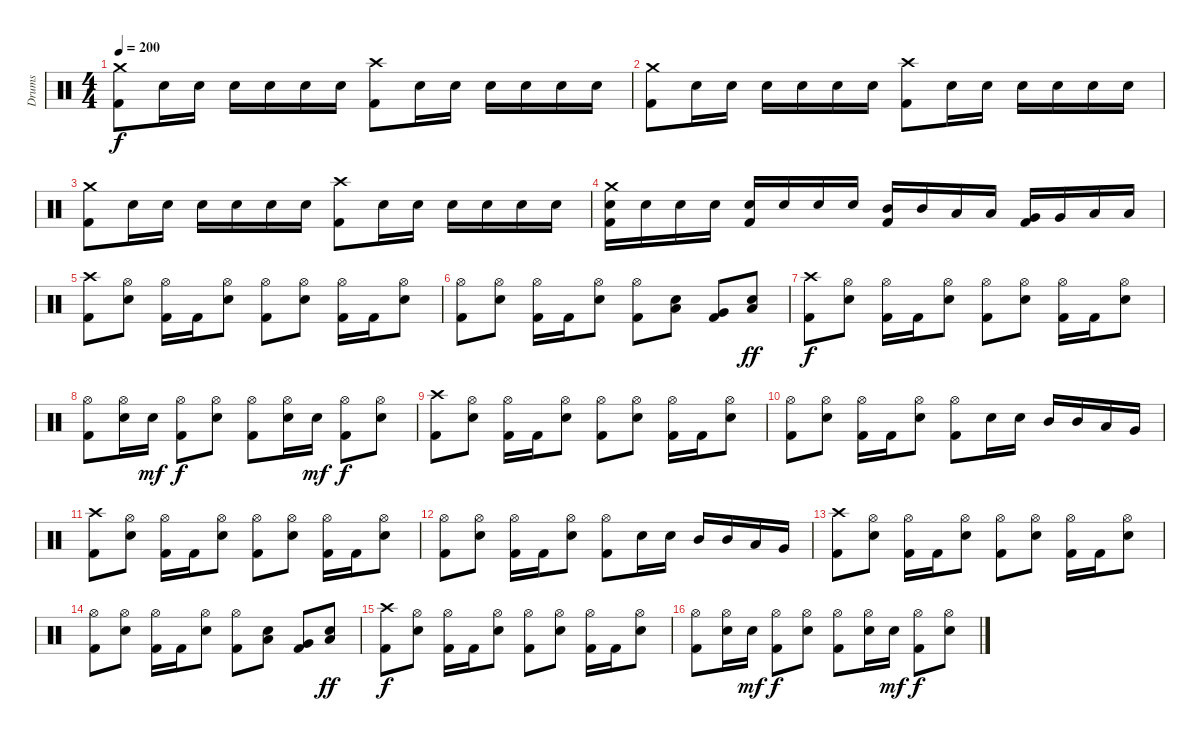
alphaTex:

\track ("Drums" "Drums") {instrument percussion}
\staff {score}
\articulation defaults
\ts (4 4)
\tempo 200
\clef neutral
\ks c
("Crash medium (hit)" "Kick (hit) 2").8{dy f} "Electric Snare (hit)".16 "Electric Snare (hit)".16 "Electric Snare (hit)".16 "Electric Snare (hit)".16 "Electric Snare (hit)".16 "Electric Snare (hit)".16 ("Crash high (hit)" "Kick (hit) 2").8 "Electric Snare (hit)".16 "Electric Snare (hit)".16 "Electric Snare (hit)".16 "Electric Snare (hit)".16 "Electric Snare (hit)".16 "Electric Snare (hit)".16 |
("Crash medium (hit)" "Kick (hit) 2").8 "Electric Snare (hit)".16 "Electric Snare (hit)".16 "Electric Snare (hit)".16 "Electric Snare (hit)".16 "Electric Snare (hit)".16 "Electric Snare (hit)".16 ("Crash high (hit)" "Kick (hit) 2").8 "Electric Snare (hit)".16 "Electric Snare (hit)".16 "Electric Snare (hit)".16 "Electric Snare (hit)".16 "Electric Snare (hit)".16 "Electric Snare (hit)".16 |
("Crash medium (hit)" "Kick (hit) 2").8 "Electric Snare (hit)".16 "Electric Snare (hit)".16 "Electric Snare (hit)".16 "Electric Snare (hit)".16 "Electric Snare (hit)".16 "Electric Snare (hit)".16 ("Crash high (hit)" "Kick (hit) 2").8 "Electric Snare (hit)".16 "Electric Snare (hit)".16 "Electric Snare (hit)".16 "Electric Snare (hit)".16 "Electric Snare (hit)".16 "Electric Snare (hit)".16 |
("Crash medium (hit)" "Electric Snare (hit)" "Kick (hit) 2").16 "Electric Snare (hit)".16 "Electric Snare (hit)".16 "Electric Snare (hit)".16 ("Electric Snare (hit)" "Kick (hit) 2").16 "Electric Snare (hit)".16 "Electric Snare (hit)".16 "Electric Snare (hit)".16 ("Mid Tom (hit)" "Kick (hit) 2").16 "Mid Tom (hit)".16 "Low Tom (hit)".16 "Low Tom (hit)".16 ("Very Low Tom (hit)" "Kick (hit) 2").16 "Very Low Tom (hit)".16 "Low Floor Tom (hit)".16 "Low Floor Tom (hit)".16 |
("Crash high (hit)" "Kick (hit) 2").8 ("Hi-Hat (open)" "Electric Snare (hit)").8 ("Hi-Hat (open)" "Kick (hit) 2").16 "Kick (hit) 2".16 ("Hi-Hat (open)" "Electric Snare (hit)").8 ("Hi-Hat (open)" "Kick (hit) 2").8 ("Hi-Hat (open)" "Electric Snare (hit)").8 ("Hi-Hat (open)" "Kick (hit) 2").16 "Kick (hit) 2".16 ("Hi-Hat (open)" "Electric Snare (hit)").8 |
("Hi-Hat (open)" "Kick (hit) 2").8 ("Hi-Hat (open)" "Electric Snare (hit)").8 ("Hi-Hat (open)" "Kick (hit) 2").16 "Kick (hit) 2".16 ("Hi-Hat (open)" "Electric Snare (hit)").8 ("Hi-Hat (open)" "Kick (hit) 2").8 ("Low Floor Tom (hit)" "Electric Snare (hit)").8 ("Very Low Tom (hit)" "Kick (hit) 2").8 ("Low Floor Tom (hit)" "Electric Snare (hit)").8{dy ff} |
("Crash high (hit)" "Kick (hit) 2").8{dy f} ("Hi-Hat (open)" "Electric Snare (hit)").8 ("Hi-Hat (open)" "Kick (hit) 2").16 "Kick (hit) 2".16 ("Hi-Hat (open)" "Electric Snare (hit)").8 ("Hi-Hat (open)" "Kick (hit) 2").8 ("Hi-Hat (open)" "Electric Snare (hit)").8 ("Hi-Hat (open)" "Kick (hit) 2").16 "Kick (hit) 2".16 ("Hi-Hat (open)" "Electric Snare (hit)").8 |
("Hi-Hat (open)" "Kick (hit) 2").8 ("Hi-Hat (open)" "Electric Snare (hit)").16 "Electric Snare (hit)".16{dy mf} ("Hi-Hat (open)" "Kick (hit) 2").8{dy f} ("Hi-Hat (open)" "Electric Snare (hit)").8 ("Hi-Hat (open)" "Kick (hit) 2").8 ("Hi-Hat (open)" "Electric Snare (hit)").16 "Electric Snare (hit)".16{dy mf} ("Hi-Hat (open)" "Kick (hit) 2").8{dy f} ("Hi-Hat (open)" "Electric Snare (hit)").8 |
("Crash high (hit)" "Kick (hit) 2").8 ("Hi-Hat (open)" "Electric Snare (hit)").8 ("Hi-Hat (open)" "Kick (hit) 2").16 "Kick (hit) 2".16 ("Hi-Hat (open)" "Electric Snare (hit)").8 ("Hi-Hat (open)" "Kick (hit) 2").8 ("Hi-Hat (open)" "Electric Snare (hit)").8 ("Hi-Hat (open)" "Kick (hit) 2").16 "Kick (hit) 2".16 ("Hi-Hat (open)" "Electric Snare (hit)").8 |
("Hi-Hat (open)" "Kick (hit) 2").8 ("Hi-Hat (open)" "Electric Snare (hit)").8 ("Hi-Hat (open)" "Kick (hit) 2").16 "Kick (hit) 2".16 ("Hi-Hat (open)" "Electric Snare (hit)").8 ("Hi-Hat (open)" "Kick (hit) 2").8 "Electric Snare (hit)".16 "Electric Snare (hit)".16 "Mid Tom (hit)".16 "Mid Tom (hit)".16 "Low Tom (hit)".16 "Very Low Tom (hit)".16 |
("Crash high (hit)" "Kick (hit) 2").8 ("Hi-Hat (open)" "Electric Snare (hit)").8 ("Hi-Hat (open)" "Kick (hit) 2").16 "Kick (hit) 2".16 ("Hi-Hat (open)" "Electric Snare (hit)").8 ("Hi-Hat (open)" "Kick (hit) 2").8 ("Hi-Hat (open)" "Electric Snare (hit)").8 ("Hi-Hat (open)" "Kick (hit) 2").16 "Kick (hit) 2".16 ("Hi-Hat (open)" "Electric Snare (hit)").8 |
("Hi-Hat (open)" "Kick (hit) 2").8 ("Hi-Hat (open)" "Electric Snare (hit)").8 ("Hi-Hat (open)" "Kick (hit) 2").16 "Kick (hit) 2".16 ("Hi-Hat (open)" "Electric Snare (hit)").8 ("Hi-Hat (open)" "Kick (hit) 2").8 "Electric Snare (hit)".16 "Electric Snare (hit)".16 "Mid Tom (hit)".16 "Mid Tom (hit)".16 "Low Tom (hit)".16 "Very Low Tom (hit)".16 |
("Crash high (hit)" "Kick (hit) 2").8 ("Hi-Hat (open)" "Electric Snare (hit)").8 ("Hi-Hat (open)" "Kick (hit) 2").16 "Kick (hit) 2".16 ("Hi-Hat (open)" "Electric Snare (hit)").8 ("Hi-Hat (open)" "Kick (hit) 2").8 ("Hi-Hat (open)" "Electric Snare (hit)").8 ("Hi-Hat (open)" "Kick (hit) 2").16 "Kick (hit) 2".16 ("Hi-Hat (open)" "Electric Snare (hit)").8 |
("Hi-Hat (open)" "Kick (hit) 2").8 ("Hi-Hat (open)" "Electric Snare (hit)").8 ("Hi-Hat (open)" "Kick (hit) 2").16 "Kick (hit) 2".16 ("Hi-Hat (open)" "Electric Snare (hit)").8 ("Hi-Hat (open)" "Kick (hit) 2").8 ("Low Floor Tom (hit)" "Electric Snare (hit)").8 ("Very Low Tom (hit)" "Kick (hit) 2").8 ("Low Floor Tom (hit)" "Electric Snare (hit)").8{dy ff} |
("Crash high (hit)" "Kick (hit) 2").8{dy f} ("Hi-Hat (open)" "Electric Snare (hit)").8 ("Hi-Hat (open)" "Kick (hit) 2").16 "Kick (hit) 2".16 ("Hi-Hat (open)" "Electric Snare (hit)").8 ("Hi-Hat (open)" "Kick (hit) 2").8 ("Hi-Hat (open)" "Electric Snare (hit)").8 ("Hi-Hat (open)" "Kick (hit) 2").16 "Kick (hit) 2".16 ("Hi-Hat (open)" "Electric Snare (hit)").8 |
("Hi-Hat (open)" "Kick (hit) 2").8 ("Hi-Hat (open)" "Electric Snare (hit)").16 "Electric Snare (hit)".16{dy mf} ("Hi-Hat (open)" "Kick (hit) 2").8{dy f} ("Hi-Hat (open)" "Electric Snare (hit)").8 ("Hi-Hat (open)" "Kick (hit) 2").8 ("Hi-Hat (open)" "Electric Snare (hit)").16 "Electric Snare (hit)".16{dy mf} ("Hi-Hat (open)" "Kick (hit) 2").8{dy f} ("Hi-Hat (open)" "Electric Snare (hit)").8
